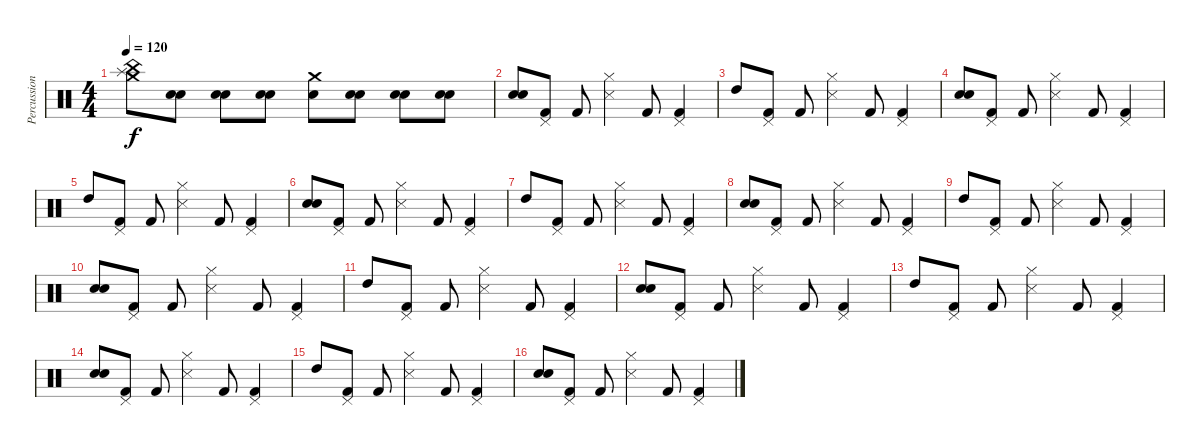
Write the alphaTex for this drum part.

\track ("Percussioni" "Percussion") {instrument percussion}
\staff {score}
\articulation defaults
\ts (4 4)
\tempo 120
\clef neutral
\ks c
("Crash medium (hit)" "China (hit)" "Splash (hit)").8{dy f} ("Electric Snare (hit)" "Snare (hit) 2").8 ("Electric Snare (hit)" "Snare (hit) 2").8 ("Electric Snare (hit)" "Snare (hit) 2").8 ("Crash medium (hit)" "Snare (hit) 2").8 ("Electric Snare (hit)" "Snare (hit) 2").8 ("Electric Snare (hit)" "Snare (hit) 2").8 ("Electric Snare (hit)" "Snare (hit) 2").8 |
("Electric Snare (hit)" "Snare (hit) 2").8 ("Kick (hit) 2" "Pedal Hi-Hat (hit)").8 "Kick (hit) 2".8 ("Snare (side stick) 3" "Hi-Hat (closed)").4 "Kick (hit) 2".8 ("Kick (hit) 2" "Pedal Hi-Hat (hit)").4 |
"High Tom (hit)".8 ("Kick (hit) 2" "Pedal Hi-Hat (hit)").8 "Kick (hit) 2".8 ("Snare (side stick) 3" "Hi-Hat (closed)").4 "Kick (hit) 2".8 ("Kick (hit) 2" "Pedal Hi-Hat (hit)").4 |
("Electric Snare (hit)" "Snare (hit) 2").8 ("Kick (hit) 2" "Pedal Hi-Hat (hit)").8 "Kick (hit) 2".8 ("Snare (side stick) 3" "Hi-Hat (closed)").4 "Kick (hit) 2".8 ("Kick (hit) 2" "Pedal Hi-Hat (hit)").4 |
"High Tom (hit)".8 ("Kick (hit) 2" "Pedal Hi-Hat (hit)").8 "Kick (hit) 2".8 ("Snare (side stick) 3" "Hi-Hat (closed)").4 "Kick (hit) 2".8 ("Kick (hit) 2" "Pedal Hi-Hat (hit)").4 |
("Electric Snare (hit)" "Snare (hit) 2").8 ("Kick (hit) 2" "Pedal Hi-Hat (hit)").8 "Kick (hit) 2".8 ("Snare (side stick) 3" "Hi-Hat (closed)").4 "Kick (hit) 2".8 ("Kick (hit) 2" "Pedal Hi-Hat (hit)").4 |
"High Tom (hit)".8 ("Kick (hit) 2" "Pedal Hi-Hat (hit)").8 "Kick (hit) 2".8 ("Snare (side stick) 3" "Hi-Hat (closed)").4 "Kick (hit) 2".8 ("Kick (hit) 2" "Pedal Hi-Hat (hit)").4 |
("Electric Snare (hit)" "Snare (hit) 2").8 ("Kick (hit) 2" "Pedal Hi-Hat (hit)").8 "Kick (hit) 2".8 ("Snare (side stick) 3" "Hi-Hat (closed)").4 "Kick (hit) 2".8 ("Kick (hit) 2" "Pedal Hi-Hat (hit)").4 |
"High Tom (hit)".8 ("Kick (hit) 2" "Pedal Hi-Hat (hit)").8 "Kick (hit) 2".8 ("Snare (side stick) 3" "Hi-Hat (closed)").4 "Kick (hit) 2".8 ("Kick (hit) 2" "Pedal Hi-Hat (hit)").4 |
("Electric Snare (hit)" "Snare (hit) 2").8 ("Kick (hit) 2" "Pedal Hi-Hat (hit)").8 "Kick (hit) 2".8 ("Snare (side stick) 3" "Hi-Hat (closed)").4 "Kick (hit) 2".8 ("Kick (hit) 2" "Pedal Hi-Hat (hit)").4 |
"High Tom (hit)".8 ("Kick (hit) 2" "Pedal Hi-Hat (hit)").8 "Kick (hit) 2".8 ("Snare (side stick) 3" "Hi-Hat (closed)").4 "Kick (hit) 2".8 ("Kick (hit) 2" "Pedal Hi-Hat (hit)").4 |
("Electric Snare (hit)" "Snare (hit) 2").8 ("Kick (hit) 2" "Pedal Hi-Hat (hit)").8 "Kick (hit) 2".8 ("Snare (side stick) 3" "Hi-Hat (closed)").4 "Kick (hit) 2".8 ("Kick (hit) 2" "Pedal Hi-Hat (hit)").4 |
"High Tom (hit)".8 ("Kick (hit) 2" "Pedal Hi-Hat (hit)").8 "Kick (hit) 2".8 ("Snare (side stick) 3" "Hi-Hat (closed)").4 "Kick (hit) 2".8 ("Kick (hit) 2" "Pedal Hi-Hat (hit)").4 |
("Electric Snare (hit)" "Snare (hit) 2").8 ("Kick (hit) 2" "Pedal Hi-Hat (hit)").8 "Kick (hit) 2".8 ("Snare (side stick) 3" "Hi-Hat (closed)").4 "Kick (hit) 2".8 ("Kick (hit) 2" "Pedal Hi-Hat (hit)").4 |
"High Tom (hit)".8 ("Kick (hit) 2" "Pedal Hi-Hat (hit)").8 "Kick (hit) 2".8 ("Snare (side stick) 3" "Hi-Hat (closed)").4 "Kick (hit) 2".8 ("Kick (hit) 2" "Pedal Hi-Hat (hit)").4 |
("Electric Snare (hit)" "Snare (hit) 2").8 ("Kick (hit) 2" "Pedal Hi-Hat (hit)").8 "Kick (hit) 2".8 ("Snare (side stick) 3" "Hi-Hat (closed)").4 "Kick (hit) 2".8 ("Kick (hit) 2" "Pedal Hi-Hat (hit)").4
